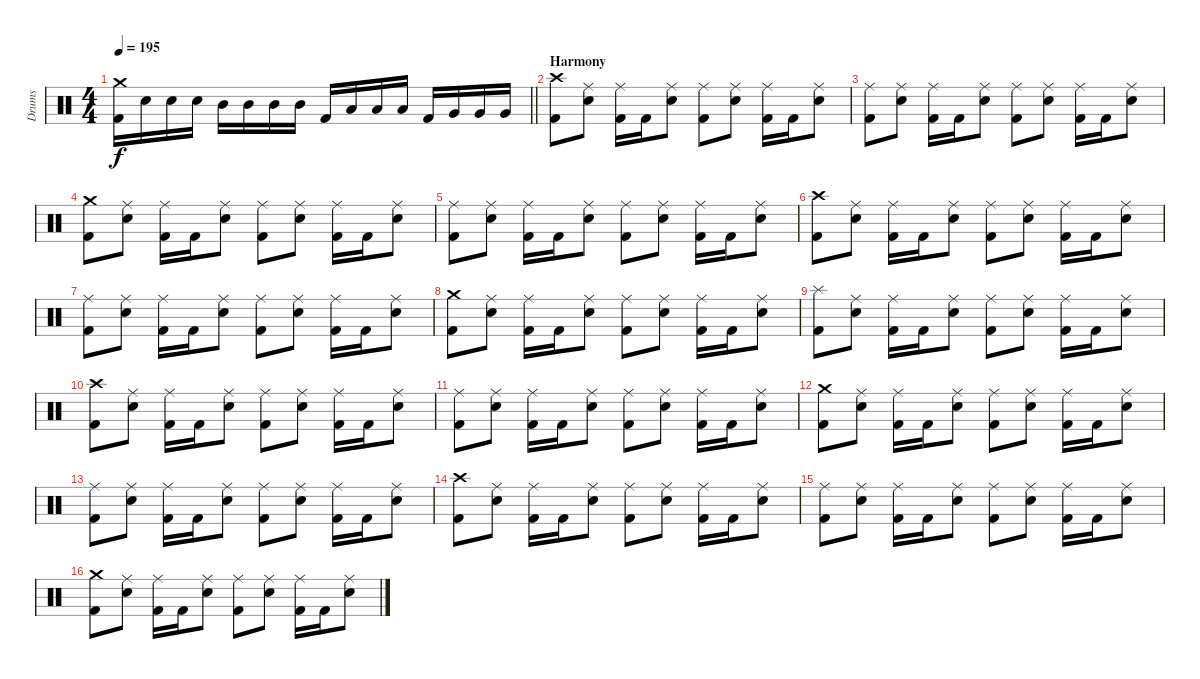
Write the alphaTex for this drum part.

\track ("Drums" "Drums") {instrument percussion}
\staff {score}
\articulation defaults
\ts (4 4)
\tempo 195
\clef neutral
\barLineRight lightlight
\ks c
("Crash medium (hit)" "Kick (hit) 2").16{dy f} "Electric Snare (hit)".16 "Electric Snare (hit)".16 "Electric Snare (hit)".16 "Mid Tom (hit)".16 "Mid Tom (hit)".16 "Mid Tom (hit)".16 "Mid Tom (hit)".16 "Kick (hit) 2".16 "Low Tom (hit)".16 "Low Tom (hit)".16 "Low Tom (hit)".16 "Kick (hit) 2".16 "Very Low Tom (hit)".16 "Very Low Tom (hit)".16 "Very Low Tom (hit)".16 |
\section ("" "Harmony")
("Crash high (hit)" "Kick (hit) 2").8 ("Ride (middle)" "Electric Snare (hit)").8 ("Ride (middle)" "Kick (hit) 2").16 "Kick (hit) 2".16 ("Ride (middle)" "Electric Snare (hit)").8 ("Ride (middle)" "Kick (hit) 2").8 ("Ride (middle)" "Electric Snare (hit)").8 ("Ride (middle)" "Kick (hit) 2").16 "Kick (hit) 2".16 ("Ride (middle)" "Electric Snare (hit)").8 |
("Ride (middle)" "Kick (hit) 2").8 ("Ride (middle)" "Electric Snare (hit)").8 ("Ride (middle)" "Kick (hit) 2").16 "Kick (hit) 2".16 ("Ride (middle)" "Electric Snare (hit)").8 ("Ride (middle)" "Kick (hit) 2").8 ("Ride (middle)" "Electric Snare (hit)").8 ("Ride (middle)" "Kick (hit) 2").16 "Kick (hit) 2".16 ("Ride (middle)" "Electric Snare (hit)").8 |
("Crash medium (hit)" "Kick (hit) 2").8 ("Ride (middle)" "Electric Snare (hit)").8 ("Ride (middle)" "Kick (hit) 2").16 "Kick (hit) 2".16 ("Ride (middle)" "Electric Snare (hit)").8 ("Ride (middle)" "Kick (hit) 2").8 ("Ride (middle)" "Electric Snare (hit)").8 ("Ride (middle)" "Kick (hit) 2").16 "Kick (hit) 2".16 ("Ride (middle)" "Electric Snare (hit)").8 |
("Ride (middle)" "Kick (hit) 2").8 ("Ride (middle)" "Electric Snare (hit)").8 ("Ride (middle)" "Kick (hit) 2").16 "Kick (hit) 2".16 ("Ride (middle)" "Electric Snare (hit)").8 ("Ride (middle)" "Kick (hit) 2").8 ("Ride (middle)" "Electric Snare (hit)").8 ("Ride (middle)" "Kick (hit) 2").16 "Kick (hit) 2".16 ("Ride (middle)" "Electric Snare (hit)").8 |
("Crash high (hit)" "Kick (hit) 2").8 ("Ride (middle)" "Electric Snare (hit)").8 ("Ride (middle)" "Kick (hit) 2").16 "Kick (hit) 2".16 ("Ride (middle)" "Electric Snare (hit)").8 ("Ride (middle)" "Kick (hit) 2").8 ("Ride (middle)" "Electric Snare (hit)").8 ("Ride (middle)" "Kick (hit) 2").16 "Kick (hit) 2".16 ("Ride (middle)" "Electric Snare (hit)").8 |
("Ride (middle)" "Kick (hit) 2").8 ("Ride (middle)" "Electric Snare (hit)").8 ("Ride (middle)" "Kick (hit) 2").16 "Kick (hit) 2".16 ("Ride (middle)" "Electric Snare (hit)").8 ("Ride (middle)" "Kick (hit) 2").8 ("Ride (middle)" "Electric Snare (hit)").8 ("Ride (middle)" "Kick (hit) 2").16 "Kick (hit) 2".16 ("Ride (middle)" "Electric Snare (hit)").8 |
("Crash medium (hit)" "Kick (hit) 2").8 ("Ride (middle)" "Electric Snare (hit)").8 ("Ride (middle)" "Kick (hit) 2").16 "Kick (hit) 2".16 ("Ride (middle)" "Electric Snare (hit)").8 ("Ride (middle)" "Kick (hit) 2").8 ("Ride (middle)" "Electric Snare (hit)").8 ("Ride (middle)" "Kick (hit) 2").16 "Kick (hit) 2".16 ("Ride (middle)" "Electric Snare (hit)").8 |
("Splash (hit)" "Kick (hit) 2").8 ("Ride (middle)" "Electric Snare (hit)").8 ("Ride (middle)" "Kick (hit) 2").16 "Kick (hit) 2".16 ("Ride (middle)" "Electric Snare (hit)").8 ("Ride (middle)" "Kick (hit) 2").8 ("Ride (middle)" "Electric Snare (hit)").8 ("Ride (middle)" "Kick (hit) 2").16 "Kick (hit) 2".16 ("Ride (middle)" "Electric Snare (hit)").8 |
("Crash high (hit)" "Kick (hit) 2").8 ("Ride (middle)" "Electric Snare (hit)").8 ("Ride (middle)" "Kick (hit) 2").16 "Kick (hit) 2".16 ("Ride (middle)" "Electric Snare (hit)").8 ("Ride (middle)" "Kick (hit) 2").8 ("Ride (middle)" "Electric Snare (hit)").8 ("Ride (middle)" "Kick (hit) 2").16 "Kick (hit) 2".16 ("Ride (middle)" "Electric Snare (hit)").8 |
("Ride (middle)" "Kick (hit) 2").8 ("Ride (middle)" "Electric Snare (hit)").8 ("Ride (middle)" "Kick (hit) 2").16 "Kick (hit) 2".16 ("Ride (middle)" "Electric Snare (hit)").8 ("Ride (middle)" "Kick (hit) 2").8 ("Ride (middle)" "Electric Snare (hit)").8 ("Ride (middle)" "Kick (hit) 2").16 "Kick (hit) 2".16 ("Ride (middle)" "Electric Snare (hit)").8 |
("Crash medium (hit)" "Kick (hit) 2").8 ("Ride (middle)" "Electric Snare (hit)").8 ("Ride (middle)" "Kick (hit) 2").16 "Kick (hit) 2".16 ("Ride (middle)" "Electric Snare (hit)").8 ("Ride (middle)" "Kick (hit) 2").8 ("Ride (middle)" "Electric Snare (hit)").8 ("Ride (middle)" "Kick (hit) 2").16 "Kick (hit) 2".16 ("Ride (middle)" "Electric Snare (hit)").8 |
("Ride (middle)" "Kick (hit) 2").8 ("Ride (middle)" "Electric Snare (hit)").8 ("Ride (middle)" "Kick (hit) 2").16 "Kick (hit) 2".16 ("Ride (middle)" "Electric Snare (hit)").8 ("Ride (middle)" "Kick (hit) 2").8 ("Ride (middle)" "Electric Snare (hit)").8 ("Ride (middle)" "Kick (hit) 2").16 "Kick (hit) 2".16 ("Ride (middle)" "Electric Snare (hit)").8 |
("Crash high (hit)" "Kick (hit) 2").8 ("Ride (middle)" "Electric Snare (hit)").8 ("Ride (middle)" "Kick (hit) 2").16 "Kick (hit) 2".16 ("Ride (middle)" "Electric Snare (hit)").8 ("Ride (middle)" "Kick (hit) 2").8 ("Ride (middle)" "Electric Snare (hit)").8 ("Ride (middle)" "Kick (hit) 2").16 "Kick (hit) 2".16 ("Ride (middle)" "Electric Snare (hit)").8 |
("Ride (middle)" "Kick (hit) 2").8 ("Ride (middle)" "Electric Snare (hit)").8 ("Ride (middle)" "Kick (hit) 2").16 "Kick (hit) 2".16 ("Ride (middle)" "Electric Snare (hit)").8 ("Ride (middle)" "Kick (hit) 2").8 ("Ride (middle)" "Electric Snare (hit)").8 ("Ride (middle)" "Kick (hit) 2").16 "Kick (hit) 2".16 ("Ride (middle)" "Electric Snare (hit)").8 |
("Crash medium (hit)" "Kick (hit) 2").8 ("Ride (middle)" "Electric Snare (hit)").8 ("Ride (middle)" "Kick (hit) 2").16 "Kick (hit) 2".16 ("Ride (middle)" "Electric Snare (hit)").8 ("Ride (middle)" "Kick (hit) 2").8 ("Ride (middle)" "Electric Snare (hit)").8 ("Ride (middle)" "Kick (hit) 2").16 "Kick (hit) 2".16 ("Ride (middle)" "Electric Snare (hit)").8
